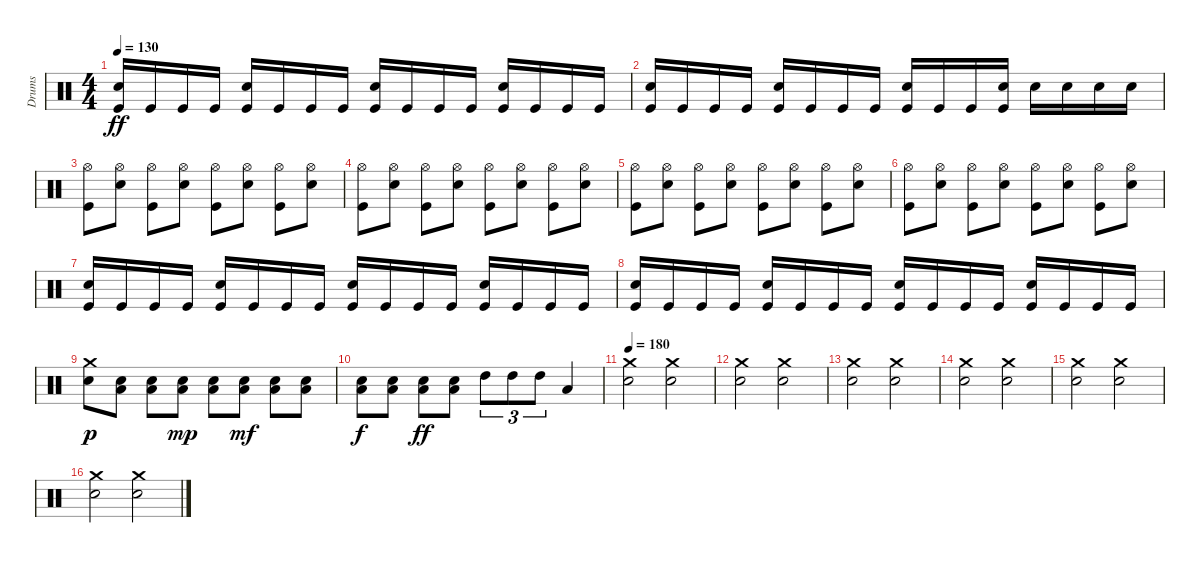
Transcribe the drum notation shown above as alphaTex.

\track ("Drums" "Drums") {instrument percussion}
\staff {score}
\articulation defaults
\ts (4 4)
\tempo 130
\clef neutral
\ks c
("Electric Snare (hit)" "Kick (hit)").16{dy ff} "Kick (hit)".16 "Kick (hit)".16 "Kick (hit)".16 ("Electric Snare (hit)" "Kick (hit)").16 "Kick (hit)".16 "Kick (hit)".16 "Kick (hit)".16 ("Electric Snare (hit)" "Kick (hit)").16 "Kick (hit)".16 "Kick (hit)".16 "Kick (hit)".16 ("Electric Snare (hit)" "Kick (hit)").16 "Kick (hit)".16 "Kick (hit)".16 "Kick (hit)".16 |
("Electric Snare (hit)" "Kick (hit)").16 "Kick (hit)".16 "Kick (hit)".16 "Kick (hit)".16 ("Electric Snare (hit)" "Kick (hit)").16 "Kick (hit)".16 "Kick (hit)".16 "Kick (hit)".16 ("Electric Snare (hit)" "Kick (hit)").16 "Kick (hit)".16 "Kick (hit)".16 ("Electric Snare (hit)" "Kick (hit)").16 "Electric Snare (hit)".16 "Electric Snare (hit)".16 "Electric Snare (hit)".16 "Electric Snare (hit)".16 |
("Hi-Hat (open)" "Kick (hit)").8 ("Hi-Hat (open)" "Electric Snare (hit)").8 ("Hi-Hat (open)" "Kick (hit)").8 ("Hi-Hat (open)" "Electric Snare (hit)").8 ("Hi-Hat (open)" "Kick (hit)").8 ("Hi-Hat (open)" "Electric Snare (hit)").8 ("Hi-Hat (open)" "Kick (hit)").8 ("Hi-Hat (open)" "Electric Snare (hit)").8 |
("Hi-Hat (open)" "Kick (hit)").8 ("Hi-Hat (open)" "Electric Snare (hit)").8 ("Hi-Hat (open)" "Kick (hit)").8 ("Hi-Hat (open)" "Electric Snare (hit)").8 ("Hi-Hat (open)" "Kick (hit)").8 ("Hi-Hat (open)" "Electric Snare (hit)").8 ("Hi-Hat (open)" "Kick (hit)").8 ("Hi-Hat (open)" "Electric Snare (hit)").8 |
("Hi-Hat (open)" "Kick (hit)").8 ("Hi-Hat (open)" "Electric Snare (hit)").8 ("Hi-Hat (open)" "Kick (hit)").8 ("Hi-Hat (open)" "Electric Snare (hit)").8 ("Hi-Hat (open)" "Kick (hit)").8 ("Hi-Hat (open)" "Electric Snare (hit)").8 ("Hi-Hat (open)" "Kick (hit)").8 ("Hi-Hat (open)" "Electric Snare (hit)").8 |
("Hi-Hat (open)" "Kick (hit)").8 ("Hi-Hat (open)" "Electric Snare (hit)").8 ("Hi-Hat (open)" "Kick (hit)").8 ("Hi-Hat (open)" "Electric Snare (hit)").8 ("Hi-Hat (open)" "Kick (hit)").8 ("Hi-Hat (open)" "Electric Snare (hit)").8 ("Hi-Hat (open)" "Kick (hit)").8 ("Hi-Hat (open)" "Electric Snare (hit)").8 |
("Electric Snare (hit)" "Kick (hit)").16 "Kick (hit)".16 "Kick (hit)".16 "Kick (hit)".16 ("Electric Snare (hit)" "Kick (hit)").16 "Kick (hit)".16 "Kick (hit)".16 "Kick (hit)".16 ("Electric Snare (hit)" "Kick (hit)").16 "Kick (hit)".16 "Kick (hit)".16 "Kick (hit)".16 ("Electric Snare (hit)" "Kick (hit)").16 "Kick (hit)".16 "Kick (hit)".16 "Kick (hit)".16 |
("Electric Snare (hit)" "Kick (hit)").16 "Kick (hit)".16 "Kick (hit)".16 "Kick (hit)".16 ("Electric Snare (hit)" "Kick (hit)").16 "Kick (hit)".16 "Kick (hit)".16 "Kick (hit)".16 ("Electric Snare (hit)" "Kick (hit)").16 "Kick (hit)".16 "Kick (hit)".16 "Kick (hit)".16 ("Electric Snare (hit)" "Kick (hit)").16 "Kick (hit)".16 "Kick (hit)".16 "Kick (hit)".16 |
("Crash medium (hit)" "Electric Snare (hit)").8{dy p} ("Low Floor Tom (hit)" "Electric Snare (hit)").8 ("Low Floor Tom (hit)" "Electric Snare (hit)").8 ("Low Floor Tom (hit)" "Electric Snare (hit)").8{dy mp} ("Low Floor Tom (hit)" "Electric Snare (hit)").8 ("Low Floor Tom (hit)" "Electric Snare (hit)").8{dy mf} ("Low Floor Tom (hit)" "Electric Snare (hit)").8 ("Low Floor Tom (hit)" "Electric Snare (hit)").8 |
("Low Floor Tom (hit)" "Electric Snare (hit)").8{dy f} ("Low Floor Tom (hit)" "Electric Snare (hit)").8 ("Low Floor Tom (hit)" "Electric Snare (hit)").8{dy ff} ("Low Floor Tom (hit)" "Electric Snare (hit)").8 "High Tom (hit)".8{tu (3 2)} "High Tom (hit)".8{tu (3 2)} "High Tom (hit)".8{tu (3 2)} "Low Tom (hit)".4 |
\tempo 180
("Crash medium (hit)" "Electric Snare (hit)").2 ("Crash medium (hit)" "Electric Snare (hit)").2 |
("Crash medium (hit)" "Electric Snare (hit)").2 ("Crash medium (hit)" "Electric Snare (hit)").2 |
("Crash medium (hit)" "Electric Snare (hit)").2 ("Crash medium (hit)" "Electric Snare (hit)").2 |
("Crash medium (hit)" "Electric Snare (hit)").2 ("Crash medium (hit)" "Electric Snare (hit)").2 |
("Crash medium (hit)" "Electric Snare (hit)").2 ("Crash medium (hit)" "Electric Snare (hit)").2 |
("Crash medium (hit)" "Electric Snare (hit)").2 ("Crash medium (hit)" "Electric Snare (hit)").2
